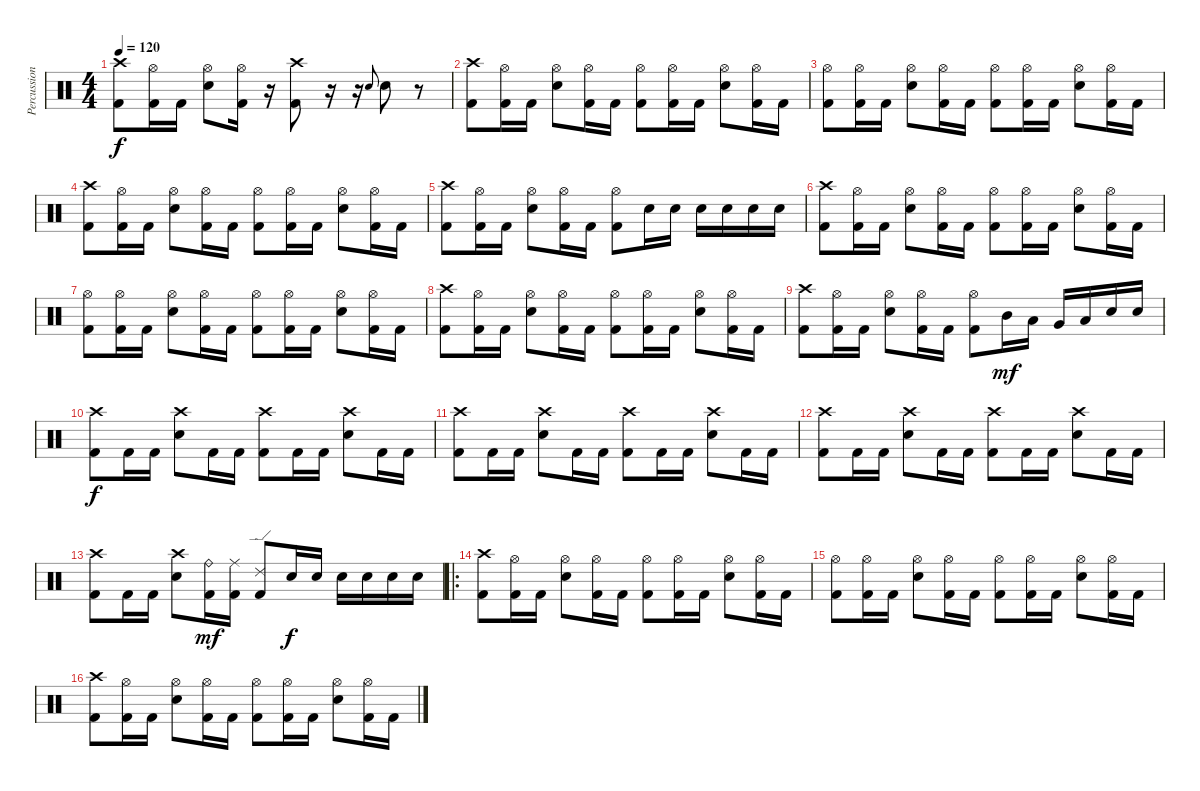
\track ("Percussion" "Percussion") {instrument percussion}
\staff {score}
\articulation defaults
\ts (4 4)
\tempo 120
\clef neutral
\ks c
("Crash high (hit)" "Kick (hit) 2").8{dy f} ("Hi-Hat (open)" "Kick (hit) 2").16 "Kick (hit) 2".16 ("Hi-Hat (open)" "Snare (hit) 2").8 ("Hi-Hat (open)" "Kick (hit) 2").16 r.16 ("Crash high (hit)" "Kick (hit) 2").8 r.16 r.16 "Snare (hit) 2".8{gr onbeat} "Snare (hit) 2".8 r.8 |
("Crash high (hit)" "Kick (hit) 2").8 ("Hi-Hat (open)" "Kick (hit) 2").16 "Kick (hit) 2".16 ("Hi-Hat (open)" "Snare (hit) 2").8 ("Hi-Hat (open)" "Kick (hit) 2").16 "Kick (hit) 2".16 ("Hi-Hat (open)" "Kick (hit) 2").8 ("Hi-Hat (open)" "Kick (hit) 2").16 "Kick (hit) 2".16 ("Hi-Hat (open)" "Snare (hit) 2").8 ("Hi-Hat (open)" "Kick (hit) 2").16 "Kick (hit) 2".16 |
("Hi-Hat (open)" "Kick (hit) 2").8 ("Hi-Hat (open)" "Kick (hit) 2").16 "Kick (hit) 2".16 ("Hi-Hat (open)" "Snare (hit) 2").8 ("Hi-Hat (open)" "Kick (hit) 2").16 "Kick (hit) 2".16 ("Hi-Hat (open)" "Kick (hit) 2").8 ("Hi-Hat (open)" "Kick (hit) 2").16 "Kick (hit) 2".16 ("Hi-Hat (open)" "Snare (hit) 2").8 ("Hi-Hat (open)" "Kick (hit) 2").16 "Kick (hit) 2".16 |
("Crash high (hit)" "Kick (hit) 2").8 ("Hi-Hat (open)" "Kick (hit) 2").16 "Kick (hit) 2".16 ("Hi-Hat (open)" "Snare (hit) 2").8 ("Hi-Hat (open)" "Kick (hit) 2").16 "Kick (hit) 2".16 ("Hi-Hat (open)" "Kick (hit) 2").8 ("Hi-Hat (open)" "Kick (hit) 2").16 "Kick (hit) 2".16 ("Hi-Hat (open)" "Snare (hit) 2").8 ("Hi-Hat (open)" "Kick (hit) 2").16 "Kick (hit) 2".16 |
("Crash high (hit)" "Kick (hit) 2").8 ("Hi-Hat (open)" "Kick (hit) 2").16 "Kick (hit) 2".16 ("Hi-Hat (open)" "Snare (hit) 2").8 ("Hi-Hat (open)" "Kick (hit) 2").16 "Kick (hit) 2".16 ("Hi-Hat (open)" "Kick (hit) 2").8 "Snare (hit) 2".16 "Snare (hit) 2".16 "Snare (hit) 2".16 "Snare (hit) 2".16 "Snare (hit) 2".16 "Snare (hit) 2".16 |
("Crash high (hit)" "Kick (hit) 2").8 ("Hi-Hat (open)" "Kick (hit) 2").16 "Kick (hit) 2".16 ("Hi-Hat (open)" "Snare (hit) 2").8 ("Hi-Hat (open)" "Kick (hit) 2").16 "Kick (hit) 2".16 ("Hi-Hat (open)" "Kick (hit) 2").8 ("Hi-Hat (open)" "Kick (hit) 2").16 "Kick (hit) 2".16 ("Hi-Hat (open)" "Snare (hit) 2").8 ("Hi-Hat (open)" "Kick (hit) 2").16 "Kick (hit) 2".16 |
("Hi-Hat (open)" "Kick (hit) 2").8 ("Hi-Hat (open)" "Kick (hit) 2").16 "Kick (hit) 2".16 ("Hi-Hat (open)" "Snare (hit) 2").8 ("Hi-Hat (open)" "Kick (hit) 2").16 "Kick (hit) 2".16 ("Hi-Hat (open)" "Kick (hit) 2").8 ("Hi-Hat (open)" "Kick (hit) 2").16 "Kick (hit) 2".16 ("Hi-Hat (open)" "Snare (hit) 2").8 ("Hi-Hat (open)" "Kick (hit) 2").16 "Kick (hit) 2".16 |
("Crash high (hit)" "Kick (hit) 2").8 ("Hi-Hat (open)" "Kick (hit) 2").16 "Kick (hit) 2".16 ("Hi-Hat (open)" "Snare (hit) 2").8 ("Hi-Hat (open)" "Kick (hit) 2").16 "Kick (hit) 2".16 ("Hi-Hat (open)" "Kick (hit) 2").8 ("Hi-Hat (open)" "Kick (hit) 2").16 "Kick (hit) 2".16 ("Hi-Hat (open)" "Snare (hit) 2").8 ("Hi-Hat (open)" "Kick (hit) 2").16 "Kick (hit) 2".16 |
("Crash high (hit)" "Kick (hit) 2").8 ("Hi-Hat (open)" "Kick (hit) 2").16 "Kick (hit) 2".16 ("Hi-Hat (open)" "Snare (hit) 2").8 ("Hi-Hat (open)" "Kick (hit) 2").16 "Kick (hit) 2".16 ("Hi-Hat (open)" "Kick (hit) 2").8 "Mid Tom (hit)".16{dy mf} "Low Tom (hit)".16 "Very Low Tom (hit)".16 "Low Floor Tom (hit)".16 "Snare (hit) 2".16 "Snare (hit) 2".16 |
("Crash high (hit)" "Kick (hit) 2").8{dy f} "Kick (hit) 2".16 "Kick (hit) 2".16 ("Crash high (hit)" "Snare (hit) 2").8 "Kick (hit) 2".16 "Kick (hit) 2".16 ("Crash high (hit)" "Kick (hit) 2").8 "Kick (hit) 2".16 "Kick (hit) 2".16 ("Crash high (hit)" "Snare (hit) 2").8 "Kick (hit) 2".16 "Kick (hit) 2".16 |
("Crash high (hit)" "Kick (hit) 2").8 "Kick (hit) 2".16 "Kick (hit) 2".16 ("Crash high (hit)" "Snare (hit) 2").8 "Kick (hit) 2".16 "Kick (hit) 2".16 ("Crash high (hit)" "Kick (hit) 2").8 "Kick (hit) 2".16 "Kick (hit) 2".16 ("Crash high (hit)" "Snare (hit) 2").8 "Kick (hit) 2".16 "Kick (hit) 2".16 |
("Crash high (hit)" "Kick (hit) 2").8 "Kick (hit) 2".16 "Kick (hit) 2".16 ("Crash high (hit)" "Snare (hit) 2").8 "Kick (hit) 2".16 "Kick (hit) 2".16 ("Crash high (hit)" "Kick (hit) 2").8 "Kick (hit) 2".16 "Kick (hit) 2".16 ("Crash high (hit)" "Snare (hit) 2").8 "Kick (hit) 2".16 "Kick (hit) 2".16 |
("Crash high (hit)" "Kick (hit) 2").8 "Kick (hit) 2".16 "Kick (hit) 2".16 ("Crash high (hit)" "Snare (hit) 2").8 ("Ride (bell)" "Kick (hit) 2").16{dy mf} ("Ride (middle)" "Kick (hit) 2").16 ("Ride (edge) 2" "Kick (hit) 2").8 "Snare (hit) 2".16{dy f} "Snare (hit) 2".16 "Snare (hit) 2".16 "Snare (hit) 2".16 "Snare (hit) 2".16 "Snare (hit) 2".16 |
\ro
("Crash high (hit)" "Kick (hit) 2").8 ("Hi-Hat (open)" "Kick (hit) 2").16 "Kick (hit) 2".16 ("Hi-Hat (open)" "Snare (hit) 2").8 ("Hi-Hat (open)" "Kick (hit) 2").16 "Kick (hit) 2".16 ("Hi-Hat (open)" "Kick (hit) 2").8 ("Hi-Hat (open)" "Kick (hit) 2").16 "Kick (hit) 2".16 ("Hi-Hat (open)" "Snare (hit) 2").8 ("Hi-Hat (open)" "Kick (hit) 2").16 "Kick (hit) 2".16 |
("Hi-Hat (open)" "Kick (hit) 2").8 ("Hi-Hat (open)" "Kick (hit) 2").16 "Kick (hit) 2".16 ("Hi-Hat (open)" "Snare (hit) 2").8 ("Hi-Hat (open)" "Kick (hit) 2").16 "Kick (hit) 2".16 ("Hi-Hat (open)" "Kick (hit) 2").8 ("Hi-Hat (open)" "Kick (hit) 2").16 "Kick (hit) 2".16 ("Hi-Hat (open)" "Snare (hit) 2").8 ("Hi-Hat (open)" "Kick (hit) 2").16 "Kick (hit) 2".16 |
("Crash high (hit)" "Kick (hit) 2").8 ("Hi-Hat (open)" "Kick (hit) 2").16 "Kick (hit) 2".16 ("Hi-Hat (open)" "Snare (hit) 2").8 ("Hi-Hat (open)" "Kick (hit) 2").16 "Kick (hit) 2".16 ("Hi-Hat (open)" "Kick (hit) 2").8 ("Hi-Hat (open)" "Kick (hit) 2").16 "Kick (hit) 2".16 ("Hi-Hat (open)" "Snare (hit) 2").8 ("Hi-Hat (open)" "Kick (hit) 2").16 "Kick (hit) 2".16
